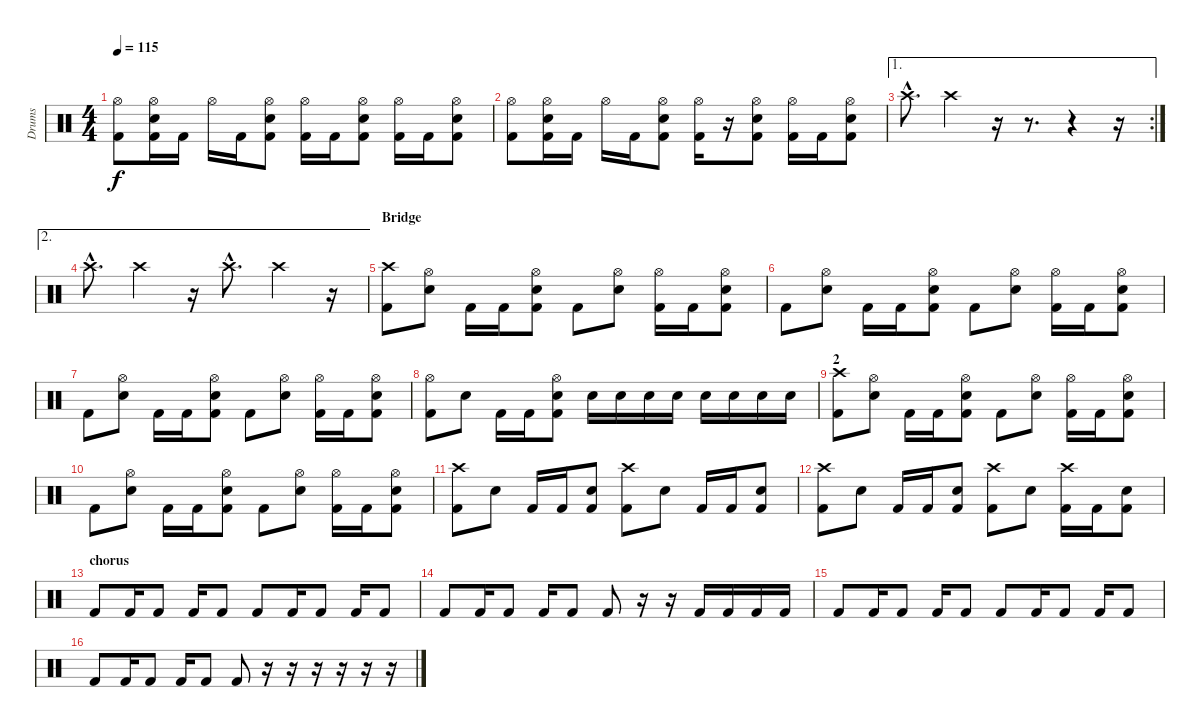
\track ("Drums" "Drums") {instrument percussion}
\staff {score}
\articulation defaults
\ts (4 4)
\tempo 115
\clef neutral
\ks c
("Hi-Hat (open)" "Kick (hit) 2").8{dy f} ("Hi-Hat (open)" "Snare (hit) 2" "Kick (hit) 2").16 "Kick (hit) 2".16 "Hi-Hat (open)".16 "Kick (hit) 2".16 ("Hi-Hat (open)" "Snare (hit) 2" "Kick (hit) 2").8 ("Hi-Hat (open)" "Kick (hit) 2").16 "Kick (hit) 2".16 ("Hi-Hat (open)" "Snare (hit) 2" "Kick (hit) 2").8 ("Hi-Hat (open)" "Kick (hit) 2").16 "Kick (hit) 2".16 ("Hi-Hat (open)" "Snare (hit) 2" "Kick (hit) 2").8 |
("Hi-Hat (open)" "Kick (hit) 2").8 ("Hi-Hat (open)" "Snare (hit) 2" "Kick (hit) 2").16 "Kick (hit) 2".16 "Hi-Hat (open)".16 "Kick (hit) 2".16 ("Hi-Hat (open)" "Snare (hit) 2" "Kick (hit) 2").8 ("Hi-Hat (open)" "Kick (hit) 2").16 r.16 ("Hi-Hat (open)" "Snare (hit) 2" "Kick (hit) 2").8 ("Hi-Hat (open)" "Kick (hit) 2").16 "Kick (hit) 2".16 ("Hi-Hat (open)" "Snare (hit) 2" "Kick (hit) 2").8 |
\ae 1
\rc 2 "Crash high (hit)"{hac}.8{d} "Crash high (hit)".4
r.16 r.8{d} r.4 r.16 |
\ae 2 "Crash high (hit)"{hac}.8{d} "Crash high (hit)".4
r.16 "Crash high (hit)"{hac}.8{d} "Crash high (hit)".4 r.16 |
\section ("" "Bridge")
("Crash high (hit)" "Kick (hit) 2").8 ("Hi-Hat (open)" "Snare (hit) 2").8 "Kick (hit) 2".16 "Kick (hit) 2".16 ("Hi-Hat (open)" "Snare (hit) 2" "Kick (hit) 2").8 "Kick (hit) 2".8 ("Hi-Hat (open)" "Snare (hit) 2").8 ("Hi-Hat (open)" "Kick (hit) 2").16 "Kick (hit) 2".16 ("Hi-Hat (open)" "Snare (hit) 2" "Kick (hit) 2").8 |
"Kick (hit) 2".8 ("Hi-Hat (open)" "Snare (hit) 2").8 "Kick (hit) 2".16 "Kick (hit) 2".16 ("Hi-Hat (open)" "Snare (hit) 2" "Kick (hit) 2").8 "Kick (hit) 2".8 ("Hi-Hat (open)" "Snare (hit) 2").8 ("Hi-Hat (open)" "Kick (hit) 2").16 "Kick (hit) 2".16 ("Hi-Hat (open)" "Snare (hit) 2" "Kick (hit) 2").8 |
"Kick (hit) 2".8 ("Hi-Hat (open)" "Snare (hit) 2").8 "Kick (hit) 2".16 "Kick (hit) 2".16 ("Hi-Hat (open)" "Snare (hit) 2" "Kick (hit) 2").8 "Kick (hit) 2".8 ("Hi-Hat (open)" "Snare (hit) 2").8 ("Hi-Hat (open)" "Kick (hit) 2").16 "Kick (hit) 2".16 ("Hi-Hat (open)" "Snare (hit) 2" "Kick (hit) 2").8 |
("Hi-Hat (open)" "Kick (hit) 2").8 "Snare (hit) 2".8 "Kick (hit) 2".16 "Kick (hit) 2".16 ("Hi-Hat (open)" "Snare (hit) 2" "Kick (hit) 2").8 "Snare (hit) 2".16 "Snare (hit) 2".16 "Snare (hit) 2".16 "Snare (hit) 2".16 "Snare (hit) 2".16 "Snare (hit) 2".16 "Snare (hit) 2".16 "Snare (hit) 2".16 |
\section ("" "2")
("Crash high (hit)" "Kick (hit) 2").8 ("Hi-Hat (open)" "Snare (hit) 2").8 "Kick (hit) 2".16 "Kick (hit) 2".16 ("Hi-Hat (open)" "Snare (hit) 2" "Kick (hit) 2").8 "Kick (hit) 2".8 ("Hi-Hat (open)" "Snare (hit) 2").8 ("Hi-Hat (open)" "Kick (hit) 2").16 "Kick (hit) 2".16 ("Hi-Hat (open)" "Snare (hit) 2" "Kick (hit) 2").8 |
"Kick (hit) 2".8 ("Hi-Hat (open)" "Snare (hit) 2").8 "Kick (hit) 2".16 "Kick (hit) 2".16 ("Hi-Hat (open)" "Snare (hit) 2" "Kick (hit) 2").8 "Kick (hit) 2".8 ("Hi-Hat (open)" "Snare (hit) 2").8 ("Hi-Hat (open)" "Kick (hit) 2").16 "Kick (hit) 2".16 ("Hi-Hat (open)" "Snare (hit) 2" "Kick (hit) 2").8 |
("Crash high (hit)" "Kick (hit) 2").8 "Snare (hit) 2".8 "Kick (hit) 2".16 "Kick (hit) 2".16 ("Snare (hit) 2" "Kick (hit) 2").8 ("Crash high (hit)" "Kick (hit) 2").8 "Snare (hit) 2".8 "Kick (hit) 2".16 "Kick (hit) 2".16 ("Snare (hit) 2" "Kick (hit) 2").8 |
("Crash high (hit)" "Kick (hit) 2").8 "Snare (hit) 2".8 "Kick (hit) 2".16 "Kick (hit) 2".16 ("Snare (hit) 2" "Kick (hit) 2").8 ("Crash high (hit)" "Kick (hit) 2").8 "Snare (hit) 2".8 ("Crash high (hit)" "Kick (hit) 2").16 "Kick (hit) 2".16 ("Snare (hit) 2" "Kick (hit) 2").8 |
\section ("" "chorus")
"Kick (hit) 2".8 "Kick (hit) 2".16 "Kick (hit) 2".8 "Kick (hit) 2".16 "Kick (hit) 2".8 "Kick (hit) 2".8 "Kick (hit) 2".16 "Kick (hit) 2".8 "Kick (hit) 2".16 "Kick (hit) 2".8 |
"Kick (hit) 2".8 "Kick (hit) 2".16 "Kick (hit) 2".8 "Kick (hit) 2".16 "Kick (hit) 2".8 "Kick (hit) 2".8 r.16 r.16 "Kick (hit) 2".16 "Kick (hit) 2".16 "Kick (hit) 2".16 "Kick (hit) 2".16 |
"Kick (hit) 2".8 "Kick (hit) 2".16 "Kick (hit) 2".8 "Kick (hit) 2".16 "Kick (hit) 2".8 "Kick (hit) 2".8 "Kick (hit) 2".16 "Kick (hit) 2".8 "Kick (hit) 2".16 "Kick (hit) 2".8 |
"Kick (hit) 2".8 "Kick (hit) 2".16 "Kick (hit) 2".8 "Kick (hit) 2".16 "Kick (hit) 2".8 "Kick (hit) 2".8 r.16 r.16 r.16 r.16 r.16 r.16
